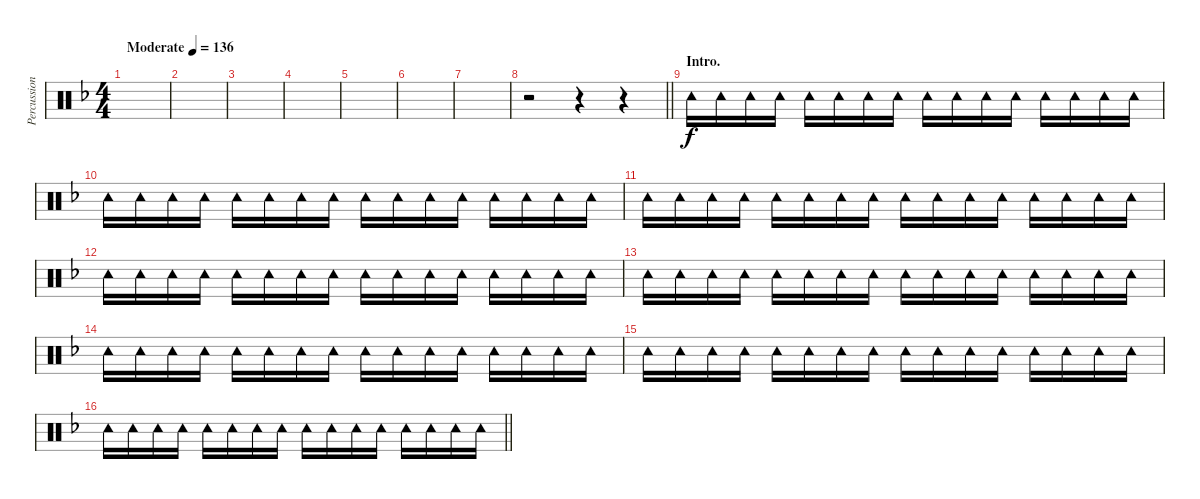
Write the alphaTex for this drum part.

\track ("Percussion" "Percussion") {instrument percussion}
\staff {score}
\articulation defaults
\ts (4 4)
\tempo (136 "Moderate")
\clef neutral
\ks dminor
|
|
|
|
|
|
|
\barLineRight lightlight
r.2{volume 13} r.4 r.4 |
\section ("" "Intro.")
"Tambourine (hit)".16 "Tambourine (hit)".16 "Tambourine (hit)".16 "Tambourine (hit)".16 "Tambourine (hit)".16 "Tambourine (hit)".16 "Tambourine (hit)".16 "Tambourine (hit)".16 "Tambourine (hit)".16 "Tambourine (hit)".16 "Tambourine (hit)".16 "Tambourine (hit)".16 "Tambourine (hit)".16 "Tambourine (hit)".16 "Tambourine (hit)".16 "Tambourine (hit)".16 |
"Tambourine (hit)".16 "Tambourine (hit)".16 "Tambourine (hit)".16 "Tambourine (hit)".16 "Tambourine (hit)".16 "Tambourine (hit)".16 "Tambourine (hit)".16 "Tambourine (hit)".16 "Tambourine (hit)".16 "Tambourine (hit)".16 "Tambourine (hit)".16 "Tambourine (hit)".16 "Tambourine (hit)".16 "Tambourine (hit)".16 "Tambourine (hit)".16 "Tambourine (hit)".16 |
"Tambourine (hit)".16 "Tambourine (hit)".16 "Tambourine (hit)".16 "Tambourine (hit)".16 "Tambourine (hit)".16 "Tambourine (hit)".16 "Tambourine (hit)".16 "Tambourine (hit)".16 "Tambourine (hit)".16 "Tambourine (hit)".16 "Tambourine (hit)".16 "Tambourine (hit)".16 "Tambourine (hit)".16 "Tambourine (hit)".16 "Tambourine (hit)".16 "Tambourine (hit)".16 |
"Tambourine (hit)".16 "Tambourine (hit)".16 "Tambourine (hit)".16 "Tambourine (hit)".16 "Tambourine (hit)".16 "Tambourine (hit)".16 "Tambourine (hit)".16 "Tambourine (hit)".16 "Tambourine (hit)".16 "Tambourine (hit)".16 "Tambourine (hit)".16 "Tambourine (hit)".16 "Tambourine (hit)".16 "Tambourine (hit)".16 "Tambourine (hit)".16 "Tambourine (hit)".16 |
"Tambourine (hit)".16 "Tambourine (hit)".16 "Tambourine (hit)".16 "Tambourine (hit)".16 "Tambourine (hit)".16 "Tambourine (hit)".16 "Tambourine (hit)".16 "Tambourine (hit)".16 "Tambourine (hit)".16 "Tambourine (hit)".16 "Tambourine (hit)".16 "Tambourine (hit)".16 "Tambourine (hit)".16 "Tambourine (hit)".16 "Tambourine (hit)".16 "Tambourine (hit)".16 |
"Tambourine (hit)".16 "Tambourine (hit)".16 "Tambourine (hit)".16 "Tambourine (hit)".16 "Tambourine (hit)".16 "Tambourine (hit)".16 "Tambourine (hit)".16 "Tambourine (hit)".16 "Tambourine (hit)".16 "Tambourine (hit)".16 "Tambourine (hit)".16 "Tambourine (hit)".16 "Tambourine (hit)".16 "Tambourine (hit)".16 "Tambourine (hit)".16 "Tambourine (hit)".16 |
"Tambourine (hit)".16 "Tambourine (hit)".16 "Tambourine (hit)".16 "Tambourine (hit)".16 "Tambourine (hit)".16 "Tambourine (hit)".16 "Tambourine (hit)".16 "Tambourine (hit)".16 "Tambourine (hit)".16 "Tambourine (hit)".16 "Tambourine (hit)".16 "Tambourine (hit)".16 "Tambourine (hit)".16 "Tambourine (hit)".16 "Tambourine (hit)".16 "Tambourine (hit)".16 |
\barLineRight lightlight "Tambourine (hit)".16 "Tambourine (hit)".16 "Tambourine (hit)".16 "Tambourine (hit)".16 "Tambourine (hit)".16 "Tambourine (hit)".16 "Tambourine (hit)".16 "Tambourine (hit)".16 "Tambourine (hit)".16 "Tambourine (hit)".16 "Tambourine (hit)".16 "Tambourine (hit)".16 "Tambourine (hit)".16 "Tambourine (hit)".16 "Tambourine (hit)".16 "Tambourine (hit)".16
